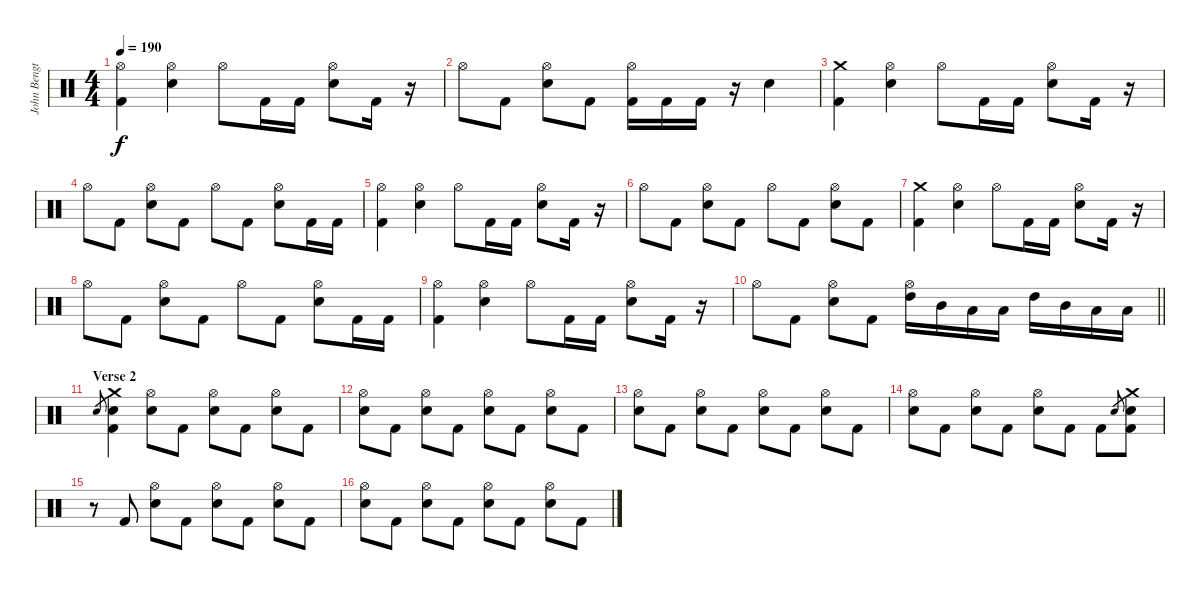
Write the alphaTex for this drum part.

\track ("John Bengtsson" "John Bengt") {instrument percussion}
\staff {score}
\articulation defaults
\ts (4 4)
\tempo 190
\clef neutral
\ks c
("Hi-Hat (open)" "Kick (hit) 2").4{dy f} ("Hi-Hat (open)" "Electric Snare (hit)").4 "Hi-Hat (open)".8 "Kick (hit) 2".16 "Kick (hit) 2".16 ("Hi-Hat (open)" "Electric Snare (hit)").8 "Kick (hit) 2".16 r.16 |
"Hi-Hat (open)".8 "Kick (hit) 2".8 ("Hi-Hat (open)" "Electric Snare (hit)").8 "Kick (hit) 2".8 ("Hi-Hat (open)" "Kick (hit) 2").16 "Kick (hit) 2".16 "Kick (hit) 2".16 r.16 "Electric Snare (hit)".4 |
("Crash medium (hit)" "Kick (hit) 2").4 ("Hi-Hat (open)" "Electric Snare (hit)").4 "Hi-Hat (open)".8 "Kick (hit) 2".16 "Kick (hit) 2".16 ("Hi-Hat (open)" "Electric Snare (hit)").8 "Kick (hit) 2".16 r.16 |
"Hi-Hat (open)".8 "Kick (hit) 2".8 ("Hi-Hat (open)" "Electric Snare (hit)").8 "Kick (hit) 2".8 "Hi-Hat (open)".8 "Kick (hit) 2".8 ("Hi-Hat (open)" "Electric Snare (hit)").8 "Kick (hit) 2".16 "Kick (hit) 2".16 |
("Hi-Hat (open)" "Kick (hit) 2").4 ("Hi-Hat (open)" "Electric Snare (hit)").4 "Hi-Hat (open)".8 "Kick (hit) 2".16 "Kick (hit) 2".16 ("Hi-Hat (open)" "Electric Snare (hit)").8 "Kick (hit) 2".16 r.16 |
"Hi-Hat (open)".8 "Kick (hit) 2".8 ("Hi-Hat (open)" "Electric Snare (hit)").8 "Kick (hit) 2".8 "Hi-Hat (open)".8 "Kick (hit) 2".8 ("Hi-Hat (open)" "Electric Snare (hit)").8 "Kick (hit) 2".8 |
("Crash medium (hit)" "Kick (hit) 2").4 ("Hi-Hat (open)" "Electric Snare (hit)").4 "Hi-Hat (open)".8 "Kick (hit) 2".16 "Kick (hit) 2".16 ("Hi-Hat (open)" "Electric Snare (hit)").8 "Kick (hit) 2".16 r.16 |
"Hi-Hat (open)".8 "Kick (hit) 2".8 ("Hi-Hat (open)" "Electric Snare (hit)").8 "Kick (hit) 2".8 "Hi-Hat (open)".8 "Kick (hit) 2".8 ("Hi-Hat (open)" "Electric Snare (hit)").8 "Kick (hit) 2".16 "Kick (hit) 2".16 |
("Hi-Hat (open)" "Kick (hit) 2").4 ("Hi-Hat (open)" "Electric Snare (hit)").4 "Hi-Hat (open)".8 "Kick (hit) 2".16 "Kick (hit) 2".16 ("Hi-Hat (open)" "Electric Snare (hit)").8 "Kick (hit) 2".16 r.16 |
\barLineRight lightlight "Hi-Hat (open)".8 "Kick (hit) 2".8
("Hi-Hat (open)" "Electric Snare (hit)").8 "Kick (hit) 2".8 ("Hi-Hat (open)" "High Tom (hit)").16 "Mid Tom (hit)".16 "Low Tom (hit)".16 "Low Floor Tom (hit)".16 "High Tom (hit)".16 "Mid Tom (hit)".16 "Low Tom (hit)".16 "Low Floor Tom (hit)".16 |
\section ("" "Verse 2")
"Electric Snare (hit)".8{gr} ("Crash medium (hit)" "Electric Snare (hit)" "Kick (hit) 2").4 ("Hi-Hat (open)" "Electric Snare (hit)").8 "Kick (hit) 2".8 ("Hi-Hat (open)" "Electric Snare (hit)").8 "Kick (hit) 2".8 ("Hi-Hat (open)" "Electric Snare (hit)").8 "Kick (hit) 2".8 |
("Hi-Hat (open)" "Electric Snare (hit)").8 "Kick (hit) 2".8 ("Hi-Hat (open)" "Electric Snare (hit)").8 "Kick (hit) 2".8 ("Hi-Hat (open)" "Electric Snare (hit)").8 "Kick (hit) 2".8 ("Hi-Hat (open)" "Electric Snare (hit)").8 "Kick (hit) 2".8 |
("Hi-Hat (open)" "Electric Snare (hit)").8 "Kick (hit) 2".8 ("Hi-Hat (open)" "Electric Snare (hit)").8 "Kick (hit) 2".8 ("Hi-Hat (open)" "Electric Snare (hit)").8 "Kick (hit) 2".8 ("Hi-Hat (open)" "Electric Snare (hit)").8 "Kick (hit) 2".8 |
("Hi-Hat (open)" "Electric Snare (hit)").8 "Kick (hit) 2".8 ("Hi-Hat (open)" "Electric Snare (hit)").8 "Kick (hit) 2".8 ("Hi-Hat (open)" "Electric Snare (hit)").8 "Kick (hit) 2".8 "Kick (hit) 2".8 "Electric Snare (hit)".8{gr} ("Crash medium (hit)" "Electric Snare (hit)" "Kick (hit) 2").8 |
r.8 "Kick (hit) 2".8 ("Hi-Hat (open)" "Electric Snare (hit)").8 "Kick (hit) 2".8 ("Hi-Hat (open)" "Electric Snare (hit)").8 "Kick (hit) 2".8 ("Hi-Hat (open)" "Electric Snare (hit)").8 "Kick (hit) 2".8 |
("Hi-Hat (open)" "Electric Snare (hit)").8 "Kick (hit) 2".8 ("Hi-Hat (open)" "Electric Snare (hit)").8 "Kick (hit) 2".8 ("Hi-Hat (open)" "Electric Snare (hit)").8 "Kick (hit) 2".8 ("Hi-Hat (open)" "Electric Snare (hit)").8 "Kick (hit) 2".8
